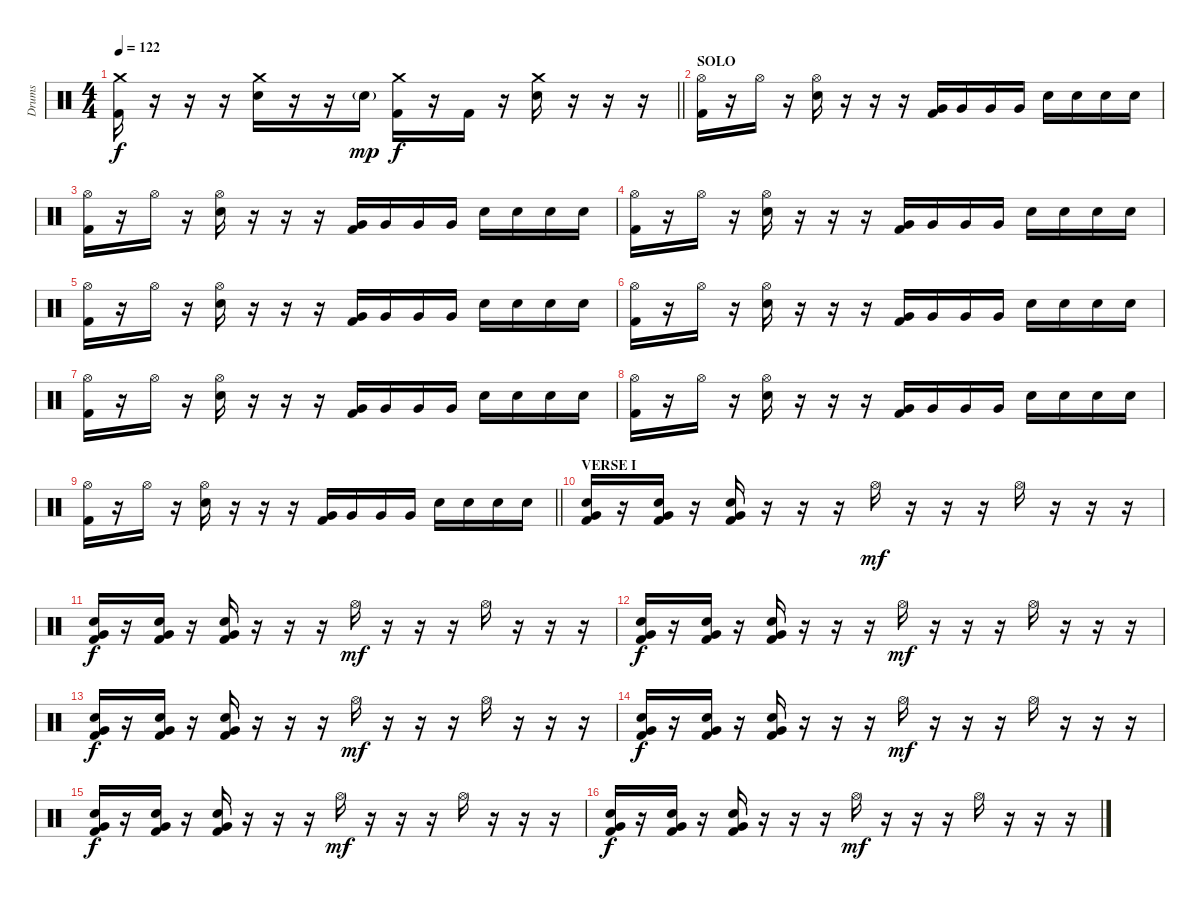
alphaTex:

\track ("Drums" "Drums") {instrument percussion}
\staff {score}
\articulation defaults
\ts (4 4)
\tempo 122
\clef neutral
\barLineRight lightlight
\ks c
("Crash medium (hit)" "Kick (hit) 2").16{dy f} r.16 r.16 r.16 ("Crash medium (hit)" "Electric Snare (hit)").16 r.16 r.16 "Electric Snare (hit)"{g}.16{dy mp} ("Crash medium (hit)" "Kick (hit) 2").16{dy f} r.16 "Kick (hit) 2".16 r.16 ("Crash medium (hit)" "Electric Snare (hit)").16 r.16 r.16 r.16 |
\section ("" "SOLO")
("Hi-Hat (open)" "Kick (hit) 2").16 r.16 "Hi-Hat (open)".16 r.16 ("Hi-Hat (open)" "Electric Snare (hit)").16 r.16 r.16 r.16 ("Very Low Tom (hit)" "Kick (hit) 2").16 "Very Low Tom (hit)".16 "Very Low Tom (hit)".16 "Very Low Tom (hit)".16 "Electric Snare (hit)".16 "Electric Snare (hit)".16 "Electric Snare (hit)".16 "Electric Snare (hit)".16 |
("Hi-Hat (open)" "Kick (hit) 2").16 r.16 "Hi-Hat (open)".16 r.16 ("Hi-Hat (open)" "Electric Snare (hit)").16 r.16 r.16 r.16 ("Very Low Tom (hit)" "Kick (hit) 2").16 "Very Low Tom (hit)".16 "Very Low Tom (hit)".16 "Very Low Tom (hit)".16 "Electric Snare (hit)".16 "Electric Snare (hit)".16 "Electric Snare (hit)".16 "Electric Snare (hit)".16 |
("Hi-Hat (open)" "Kick (hit) 2").16 r.16 "Hi-Hat (open)".16 r.16 ("Hi-Hat (open)" "Electric Snare (hit)").16 r.16 r.16 r.16 ("Very Low Tom (hit)" "Kick (hit) 2").16 "Very Low Tom (hit)".16 "Very Low Tom (hit)".16 "Very Low Tom (hit)".16 "Electric Snare (hit)".16 "Electric Snare (hit)".16 "Electric Snare (hit)".16 "Electric Snare (hit)".16 |
("Hi-Hat (open)" "Kick (hit) 2").16 r.16 "Hi-Hat (open)".16 r.16 ("Hi-Hat (open)" "Electric Snare (hit)").16 r.16 r.16 r.16 ("Very Low Tom (hit)" "Kick (hit) 2").16 "Very Low Tom (hit)".16 "Very Low Tom (hit)".16 "Very Low Tom (hit)".16 "Electric Snare (hit)".16 "Electric Snare (hit)".16 "Electric Snare (hit)".16 "Electric Snare (hit)".16 |
("Hi-Hat (open)" "Kick (hit) 2").16 r.16 "Hi-Hat (open)".16 r.16 ("Hi-Hat (open)" "Electric Snare (hit)").16 r.16 r.16 r.16 ("Very Low Tom (hit)" "Kick (hit) 2").16 "Very Low Tom (hit)".16 "Very Low Tom (hit)".16 "Very Low Tom (hit)".16 "Electric Snare (hit)".16 "Electric Snare (hit)".16 "Electric Snare (hit)".16 "Electric Snare (hit)".16 |
("Hi-Hat (open)" "Kick (hit) 2").16 r.16 "Hi-Hat (open)".16 r.16 ("Hi-Hat (open)" "Electric Snare (hit)").16 r.16 r.16 r.16 ("Very Low Tom (hit)" "Kick (hit) 2").16 "Very Low Tom (hit)".16 "Very Low Tom (hit)".16 "Very Low Tom (hit)".16 "Electric Snare (hit)".16 "Electric Snare (hit)".16 "Electric Snare (hit)".16 "Electric Snare (hit)".16 |
("Hi-Hat (open)" "Kick (hit) 2").16 r.16 "Hi-Hat (open)".16 r.16 ("Hi-Hat (open)" "Electric Snare (hit)").16 r.16 r.16 r.16 ("Very Low Tom (hit)" "Kick (hit) 2").16 "Very Low Tom (hit)".16 "Very Low Tom (hit)".16 "Very Low Tom (hit)".16 "Electric Snare (hit)".16 "Electric Snare (hit)".16 "Electric Snare (hit)".16 "Electric Snare (hit)".16 |
\barLineRight lightlight
("Hi-Hat (open)" "Kick (hit) 2").16 r.16 "Hi-Hat (open)".16 r.16 ("Hi-Hat (open)" "Electric Snare (hit)").16 r.16 r.16 r.16 ("Very Low Tom (hit)" "Kick (hit) 2").16 "Very Low Tom (hit)".16 "Very Low Tom (hit)".16 "Very Low Tom (hit)".16 "Electric Snare (hit)".16 "Electric Snare (hit)".16 "Electric Snare (hit)".16 "Electric Snare (hit)".16 |
\section ("" "VERSE I")
("Electric Snare (hit)" "Very Low Tom (hit)" "Kick (hit) 2").16 r.16 ("Electric Snare (hit)" "Very Low Tom (hit)" "Kick (hit) 2").16 r.16 ("Electric Snare (hit)" "Very Low Tom (hit)" "Kick (hit) 2").16 r.16 r.16 r.16 "Hi-Hat (open)".16{dy mf} r.16 r.16 r.16 "Hi-Hat (open)".16 r.16 r.16 r.16 |
("Electric Snare (hit)" "Very Low Tom (hit)" "Kick (hit) 2").16{dy f} r.16 ("Electric Snare (hit)" "Very Low Tom (hit)" "Kick (hit) 2").16 r.16 ("Electric Snare (hit)" "Very Low Tom (hit)" "Kick (hit) 2").16 r.16 r.16 r.16 "Hi-Hat (open)".16{dy mf} r.16 r.16 r.16 "Hi-Hat (open)".16 r.16 r.16 r.16 |
("Electric Snare (hit)" "Very Low Tom (hit)" "Kick (hit) 2").16{dy f} r.16 ("Electric Snare (hit)" "Very Low Tom (hit)" "Kick (hit) 2").16 r.16 ("Electric Snare (hit)" "Very Low Tom (hit)" "Kick (hit) 2").16 r.16 r.16 r.16 "Hi-Hat (open)".16{dy mf} r.16 r.16 r.16 "Hi-Hat (open)".16 r.16 r.16 r.16 |
("Electric Snare (hit)" "Very Low Tom (hit)" "Kick (hit) 2").16{dy f} r.16 ("Electric Snare (hit)" "Very Low Tom (hit)" "Kick (hit) 2").16 r.16 ("Electric Snare (hit)" "Very Low Tom (hit)" "Kick (hit) 2").16 r.16 r.16 r.16 "Hi-Hat (open)".16{dy mf} r.16 r.16 r.16 "Hi-Hat (open)".16 r.16 r.16 r.16 |
("Electric Snare (hit)" "Very Low Tom (hit)" "Kick (hit) 2").16{dy f} r.16 ("Electric Snare (hit)" "Very Low Tom (hit)" "Kick (hit) 2").16 r.16 ("Electric Snare (hit)" "Very Low Tom (hit)" "Kick (hit) 2").16 r.16 r.16 r.16 "Hi-Hat (open)".16{dy mf} r.16 r.16 r.16 "Hi-Hat (open)".16 r.16 r.16 r.16 |
("Electric Snare (hit)" "Very Low Tom (hit)" "Kick (hit) 2").16{dy f} r.16 ("Electric Snare (hit)" "Very Low Tom (hit)" "Kick (hit) 2").16 r.16 ("Electric Snare (hit)" "Very Low Tom (hit)" "Kick (hit) 2").16 r.16 r.16 r.16 "Hi-Hat (open)".16{dy mf} r.16 r.16 r.16 "Hi-Hat (open)".16 r.16 r.16 r.16 |
("Electric Snare (hit)" "Very Low Tom (hit)" "Kick (hit) 2").16{dy f} r.16 ("Electric Snare (hit)" "Very Low Tom (hit)" "Kick (hit) 2").16 r.16 ("Electric Snare (hit)" "Very Low Tom (hit)" "Kick (hit) 2").16 r.16 r.16 r.16 "Hi-Hat (open)".16{dy mf} r.16 r.16 r.16 "Hi-Hat (open)".16 r.16 r.16 r.16
